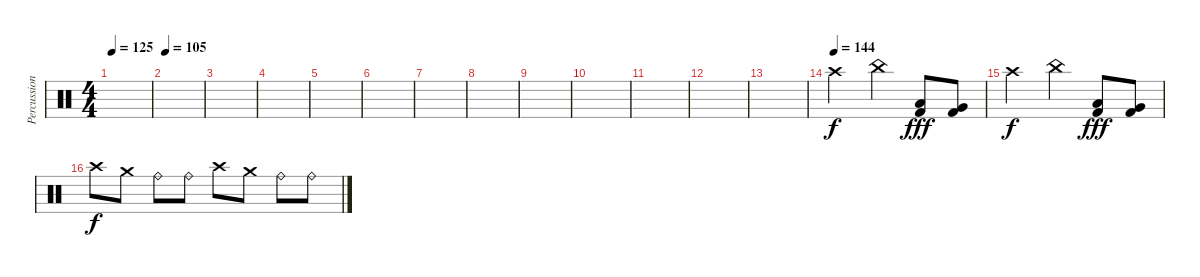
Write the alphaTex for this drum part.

\track ("Percussion" "Percussion") {instrument percussion}
\staff {score}
\articulation defaults
\ts (4 4)
\tempo 125
\clef neutral
\ks c
|
\tempo 105
|
|
|
|
|
|
|
|
|
|
|
|
\tempo (144)
"Crash high (hit)".2 "China (hit)".4 ("Low Tom (hit)" "Kick (hit) 2").8{dy fff} ("Very Low Tom (hit)" "Kick (hit) 2").8 |
"Crash high (hit)".2{dy f} "China (hit)".4 ("Low Tom (hit)" "Kick (hit) 2").8{dy fff} ("Very Low Tom (hit)" "Kick (hit) 2").8 |
"Crash high (hit)".8{dy f} "Crash medium (hit)".8 "Ride (bell)".8 "Ride (bell)".8 "Crash high (hit)".8 "Crash medium (hit)".8 "Ride (bell)".8 "Ride (bell)".8
